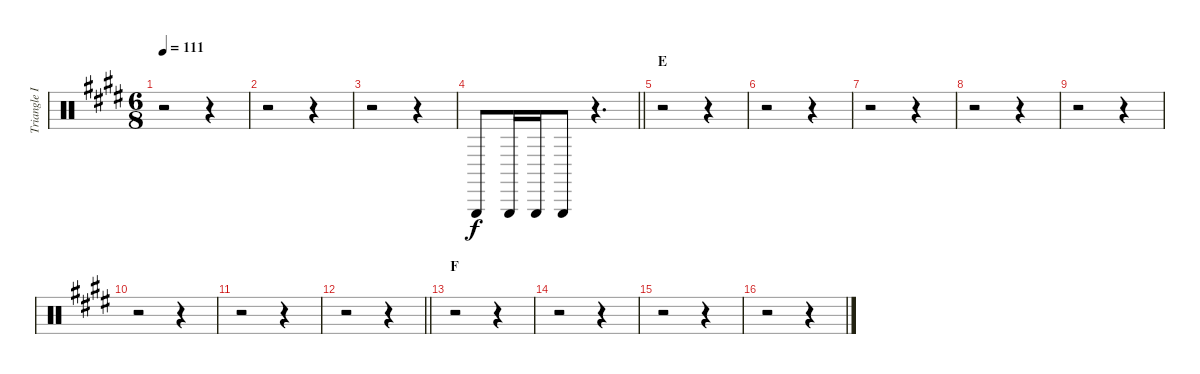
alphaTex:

\track ("Triangle I" "Triangle I") {instrument percussion}
\staff {score}
\articulation defaults
\ts (6 8)
\tempo 111
\clef neutral
\ks e
r.2{dy f} r.4 |
r.2 r.4 |
r.2 r.4 |
\barLineRight lightlight "Triangle (hit)".8 "Triangle (hit)".16 "Triangle (hit)".16 "Triangle (hit)".8
r.4{d} |
\section ("" "E")
r.2 r.4 |
r.2 r.4 |
r.2 r.4 |
r.2 r.4 |
r.2 r.4 |
r.2 r.4 |
r.2 r.4 |
\barLineRight lightlight
r.2 r.4 |
\section ("" "F")
r.2 r.4 |
r.2 r.4 |
r.2 r.4 |
r.2 r.4
